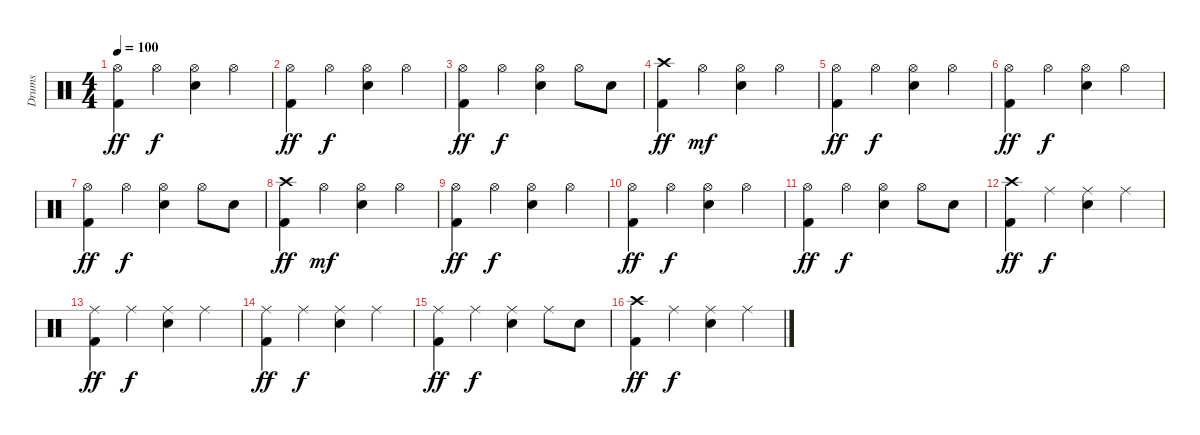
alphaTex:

\track ("Drums" "Drums") {instrument percussion}
\staff {score}
\articulation defaults
\ts (4 4)
\tempo 100
\clef neutral
\ks c
("Hi-Hat (open)" "Kick (hit) 2").4{dy ff} "Hi-Hat (open)".4{dy f} ("Hi-Hat (open)" "Electric Snare (hit)").4 "Hi-Hat (open)".4 |
("Hi-Hat (open)" "Kick (hit) 2").4{dy ff} "Hi-Hat (open)".4{dy f} ("Hi-Hat (open)" "Electric Snare (hit)").4 "Hi-Hat (open)".4 |
("Hi-Hat (open)" "Kick (hit) 2").4{dy ff} "Hi-Hat (open)".4{dy f} ("Hi-Hat (open)" "Electric Snare (hit)").4 "Hi-Hat (open)".8 "Electric Snare (hit)".8 |
("Crash high (hit)" "Kick (hit) 2").4{dy ff} "Hi-Hat (open)".4{dy mf} ("Hi-Hat (open)" "Electric Snare (hit)").4 "Hi-Hat (open)".4 |
("Hi-Hat (open)" "Kick (hit) 2").4{dy ff} "Hi-Hat (open)".4{dy f} ("Hi-Hat (open)" "Electric Snare (hit)").4 "Hi-Hat (open)".4 |
("Hi-Hat (open)" "Kick (hit) 2").4{dy ff} "Hi-Hat (open)".4{dy f} ("Hi-Hat (open)" "Electric Snare (hit)").4 "Hi-Hat (open)".4 |
("Hi-Hat (open)" "Kick (hit) 2").4{dy ff} "Hi-Hat (open)".4{dy f} ("Hi-Hat (open)" "Electric Snare (hit)").4 "Hi-Hat (open)".8 "Electric Snare (hit)".8 |
("Crash high (hit)" "Kick (hit) 2").4{dy ff} "Hi-Hat (open)".4{dy mf} ("Hi-Hat (open)" "Electric Snare (hit)").4 "Hi-Hat (open)".4 |
("Hi-Hat (open)" "Kick (hit) 2").4{dy ff} "Hi-Hat (open)".4{dy f} ("Hi-Hat (open)" "Electric Snare (hit)").4 "Hi-Hat (open)".4 |
("Hi-Hat (open)" "Kick (hit) 2").4{dy ff} "Hi-Hat (open)".4{dy f} ("Hi-Hat (open)" "Electric Snare (hit)").4 "Hi-Hat (open)".4 |
("Hi-Hat (open)" "Kick (hit) 2").4{dy ff} "Hi-Hat (open)".4{dy f} ("Hi-Hat (open)" "Electric Snare (hit)").4 "Hi-Hat (open)".8 "Electric Snare (hit)".8 |
("Crash high (hit)" "Kick (hit) 2").4{dy ff} "Ride (middle)".4{dy f} ("Ride (middle)" "Electric Snare (hit)").4 "Ride (middle)".4 |
("Ride (middle)" "Kick (hit) 2").4{dy ff} "Ride (middle)".4{dy f} ("Ride (middle)" "Electric Snare (hit)").4 "Ride (middle)".4 |
("Ride (middle)" "Kick (hit) 2").4{dy ff} "Ride (middle)".4{dy f} ("Ride (middle)" "Electric Snare (hit)").4 "Ride (middle)".4 |
("Ride (middle)" "Kick (hit) 2").4{dy ff} "Ride (middle)".4{dy f} ("Ride (middle)" "Electric Snare (hit)").4 "Ride (middle)".8 "Electric Snare (hit)".8 |
("Crash high (hit)" "Kick (hit) 2").4{dy ff} "Ride (middle)".4{dy f} ("Ride (middle)" "Electric Snare (hit)").4 "Ride (middle)".4
